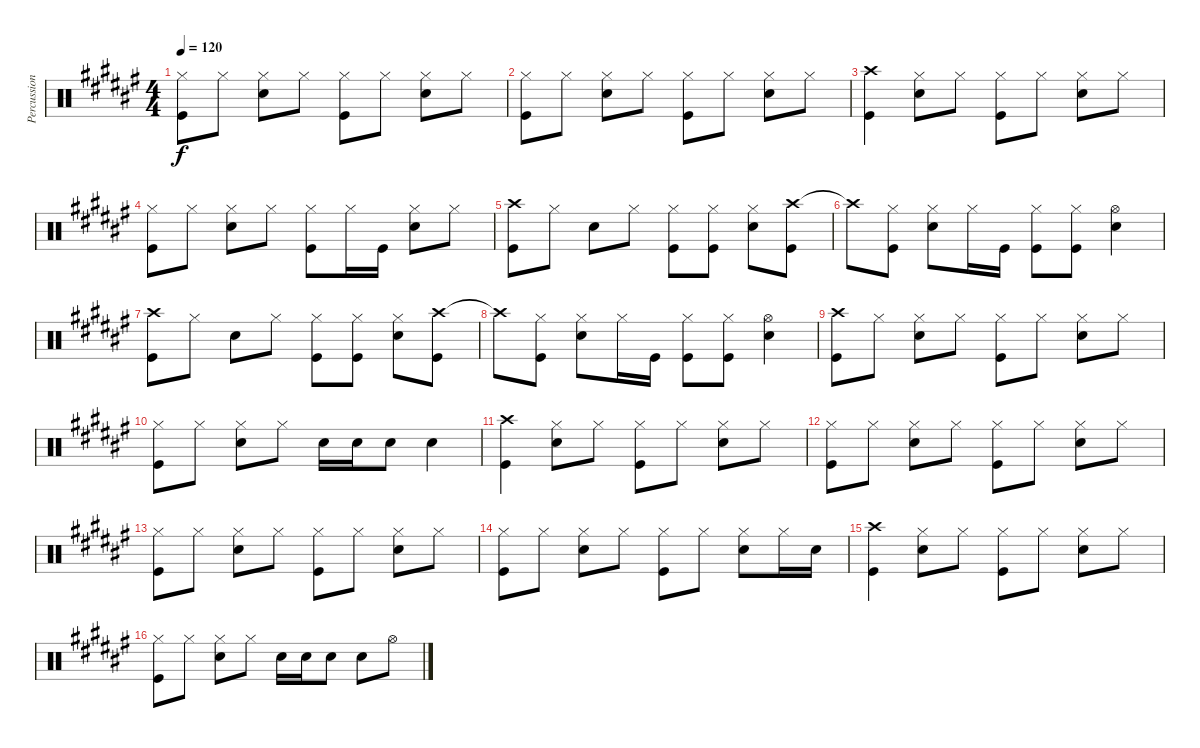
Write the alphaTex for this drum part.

\track ("Percussion" "Percussion") {instrument percussion}
\staff {score}
\articulation defaults
\ts (4 4)
\tempo 120
\clef neutral
\ks f#
("Hi-Hat (closed)" "Kick (hit)").8{dy f} "Hi-Hat (closed)".8 ("Hi-Hat (closed)" "Snare (hit) 2").8 "Hi-Hat (closed)".8 ("Hi-Hat (closed)" "Kick (hit)").8 "Hi-Hat (closed)".8 ("Hi-Hat (closed)" "Snare (hit) 2").8 "Hi-Hat (closed)".8 |
("Hi-Hat (closed)" "Kick (hit)").8 "Hi-Hat (closed)".8 ("Hi-Hat (closed)" "Snare (hit) 2").8 "Hi-Hat (closed)".8 ("Hi-Hat (closed)" "Kick (hit)").8 "Hi-Hat (closed)".8 ("Hi-Hat (closed)" "Snare (hit) 2").8 "Hi-Hat (closed)".8 |
("Crash high (hit)" "Kick (hit)").4 ("Hi-Hat (closed)" "Snare (hit) 2").8 "Hi-Hat (closed)".8 ("Hi-Hat (closed)" "Kick (hit)").8 "Hi-Hat (closed)".8 ("Hi-Hat (closed)" "Snare (hit) 2").8 "Hi-Hat (closed)".8 |
("Hi-Hat (closed)" "Kick (hit)").8 "Hi-Hat (closed)".8 ("Hi-Hat (closed)" "Snare (hit) 2").8 "Hi-Hat (closed)".8 ("Hi-Hat (closed)" "Kick (hit)").8 "Hi-Hat (closed)".16 "Kick (hit)".16 ("Hi-Hat (closed)" "Snare (hit) 2").8 "Hi-Hat (closed)".8 |
("Crash high (hit)" "Kick (hit)").8 "Hi-Hat (closed)".8 "Snare (hit) 2".8 "Hi-Hat (closed)".8 ("Hi-Hat (closed)" "Kick (hit)").8 ("Hi-Hat (closed)" "Kick (hit)").8 ("Hi-Hat (closed)" "Snare (hit) 2").8 ("Crash high (hit)" "Kick (hit)").8 |
"Crash high (hit)"{t}.8 ("Hi-Hat (closed)" "Kick (hit)").8 ("Hi-Hat (closed)" "Snare (hit) 2").8 "Hi-Hat (closed)".16 "Kick (hit)".16 ("Hi-Hat (closed)" "Kick (hit)").8 ("Hi-Hat (closed)" "Kick (hit)").8 ("Hi-Hat (open)" "Snare (hit) 2").4 |
("Crash high (hit)" "Kick (hit)").8 "Hi-Hat (closed)".8 "Snare (hit) 2".8 "Hi-Hat (closed)".8 ("Hi-Hat (closed)" "Kick (hit)").8 ("Hi-Hat (closed)" "Kick (hit)").8 ("Hi-Hat (closed)" "Snare (hit) 2").8 ("Crash high (hit)" "Kick (hit)").8 |
"Crash high (hit)"{t}.8 ("Hi-Hat (closed)" "Kick (hit)").8 ("Hi-Hat (closed)" "Snare (hit) 2").8 "Hi-Hat (closed)".16 "Kick (hit)".16 ("Hi-Hat (closed)" "Kick (hit)").8 ("Hi-Hat (closed)" "Kick (hit)").8 ("Hi-Hat (open)" "Snare (hit) 2").4 |
("Crash high (hit)" "Kick (hit)").8 "Hi-Hat (closed)".8 ("Hi-Hat (closed)" "Snare (hit) 2").8 "Hi-Hat (closed)".8 ("Hi-Hat (closed)" "Kick (hit)").8 "Hi-Hat (closed)".8 ("Hi-Hat (closed)" "Snare (hit) 2").8 "Hi-Hat (closed)".8 |
("Hi-Hat (closed)" "Kick (hit)").8 "Hi-Hat (closed)".8 ("Hi-Hat (closed)" "Snare (hit) 2").8 "Hi-Hat (closed)".8 "Snare (hit) 2".16 "Snare (hit) 2".16 "Snare (hit) 2".8 "Snare (hit) 2".4 |
("Crash high (hit)" "Kick (hit)").4 ("Hi-Hat (closed)" "Snare (hit) 2").8 "Hi-Hat (closed)".8 ("Hi-Hat (closed)" "Kick (hit)").8 "Hi-Hat (closed)".8 ("Hi-Hat (closed)" "Snare (hit) 2").8 "Hi-Hat (closed)".8 |
("Hi-Hat (closed)" "Kick (hit)").8 "Hi-Hat (closed)".8 ("Hi-Hat (closed)" "Snare (hit) 2").8 "Hi-Hat (closed)".8 ("Hi-Hat (closed)" "Kick (hit)").8 "Hi-Hat (closed)".8 ("Hi-Hat (closed)" "Snare (hit) 2").8 "Hi-Hat (closed)".8 |
("Hi-Hat (closed)" "Kick (hit)").8 "Hi-Hat (closed)".8 ("Hi-Hat (closed)" "Snare (hit) 2").8 "Hi-Hat (closed)".8 ("Hi-Hat (closed)" "Kick (hit)").8 "Hi-Hat (closed)".8 ("Hi-Hat (closed)" "Snare (hit) 2").8 "Hi-Hat (closed)".8 |
("Hi-Hat (closed)" "Kick (hit)").8 "Hi-Hat (closed)".8 ("Hi-Hat (closed)" "Snare (hit) 2").8 "Hi-Hat (closed)".8 ("Hi-Hat (closed)" "Kick (hit)").8 "Hi-Hat (closed)".8 ("Hi-Hat (closed)" "Snare (hit) 2").8 "Hi-Hat (closed)".16 "Snare (hit) 2".16 |
("Crash high (hit)" "Kick (hit)").4 ("Hi-Hat (closed)" "Snare (hit) 2").8 "Hi-Hat (closed)".8 ("Hi-Hat (closed)" "Kick (hit)").8 "Hi-Hat (closed)".8 ("Hi-Hat (closed)" "Snare (hit) 2").8 "Hi-Hat (closed)".8 |
("Hi-Hat (closed)" "Kick (hit)").8 "Hi-Hat (closed)".8 ("Hi-Hat (closed)" "Snare (hit) 2").8 "Hi-Hat (closed)".8 "Snare (hit) 2".16 "Snare (hit) 2".16 "Snare (hit) 2".8 "Snare (hit) 2".8 "Hi-Hat (open)".8
